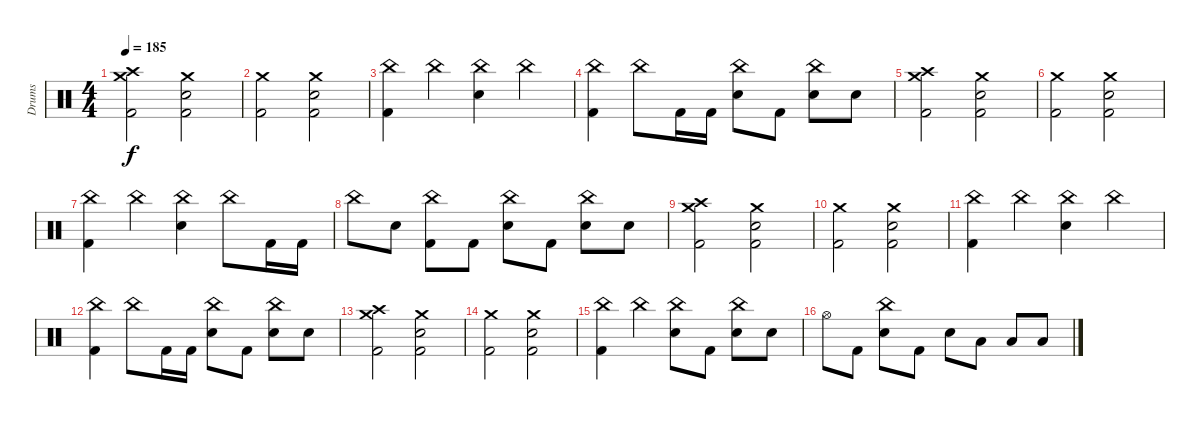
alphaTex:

\track ("Drums" "Drums") {instrument percussion}
\staff {score}
\articulation defaults
\ts (4 4)
\tempo 185
\clef neutral
\ks c
("Crash high (hit)" "Crash medium (hit)" "Kick (hit) 2").2{dy f} ("Crash medium (hit)" "Electric Snare (hit)" "Kick (hit) 2").2 |
("Crash medium (hit)" "Kick (hit) 2").2 ("Crash medium (hit)" "Electric Snare (hit)" "Kick (hit) 2").2 |
("China (hit)" "Kick (hit) 2").4 "China (hit)".4 ("China (hit)" "Electric Snare (hit)").4 "China (hit)".4 |
("China (hit)" "Kick (hit) 2").4 "China (hit)".8 "Kick (hit) 2".16 "Kick (hit) 2".16 ("China (hit)" "Electric Snare (hit)").8 "Kick (hit) 2".8 ("China (hit)" "Electric Snare (hit)").8 "Electric Snare (hit)".8 |
("Crash high (hit)" "Crash medium (hit)" "Kick (hit) 2").2 ("Crash medium (hit)" "Electric Snare (hit)" "Kick (hit) 2").2 |
("Crash medium (hit)" "Kick (hit) 2").2 ("Crash medium (hit)" "Electric Snare (hit)" "Kick (hit) 2").2 |
("China (hit)" "Kick (hit) 2").4 "China (hit)".4 ("China (hit)" "Electric Snare (hit)").4 "China (hit)".8 "Kick (hit) 2".16 "Kick (hit) 2".16 |
"China (hit)".8 "Electric Snare (hit)".8 ("China (hit)" "Kick (hit) 2").8 "Kick (hit) 2".8 ("China (hit)" "Electric Snare (hit)").8 "Kick (hit) 2".8 ("China (hit)" "Electric Snare (hit)").8 "Electric Snare (hit)".8 |
("Crash high (hit)" "Crash medium (hit)" "Kick (hit) 2").2 ("Crash medium (hit)" "Electric Snare (hit)" "Kick (hit) 2").2 |
("Crash medium (hit)" "Kick (hit) 2").2 ("Crash medium (hit)" "Electric Snare (hit)" "Kick (hit) 2").2 |
("China (hit)" "Kick (hit) 2").4 "China (hit)".4 ("China (hit)" "Electric Snare (hit)").4 "China (hit)".4 |
("China (hit)" "Kick (hit) 2").4 "China (hit)".8 "Kick (hit) 2".16 "Kick (hit) 2".16 ("China (hit)" "Electric Snare (hit)").8 "Kick (hit) 2".8 ("China (hit)" "Electric Snare (hit)").8 "Electric Snare (hit)".8 |
("Crash high (hit)" "Crash medium (hit)" "Kick (hit) 2").2 ("Crash medium (hit)" "Electric Snare (hit)" "Kick (hit) 2").2 |
("Crash medium (hit)" "Kick (hit) 2").2 ("Crash medium (hit)" "Electric Snare (hit)" "Kick (hit) 2").2 |
("China (hit)" "Kick (hit) 2").4 "China (hit)".4 ("China (hit)" "Electric Snare (hit)").8 "Kick (hit) 2".8 ("China (hit)" "Electric Snare (hit)").8 "Electric Snare (hit)".8 |
"Hi-Hat (open)".8 "Kick (hit) 2".8 ("China (hit)" "Electric Snare (hit)").8 "Kick (hit) 2".8 "Electric Snare (hit)".8 "Low Tom (hit)".8 "Low Floor Tom (hit)".8 "Low Floor Tom (hit)".8
